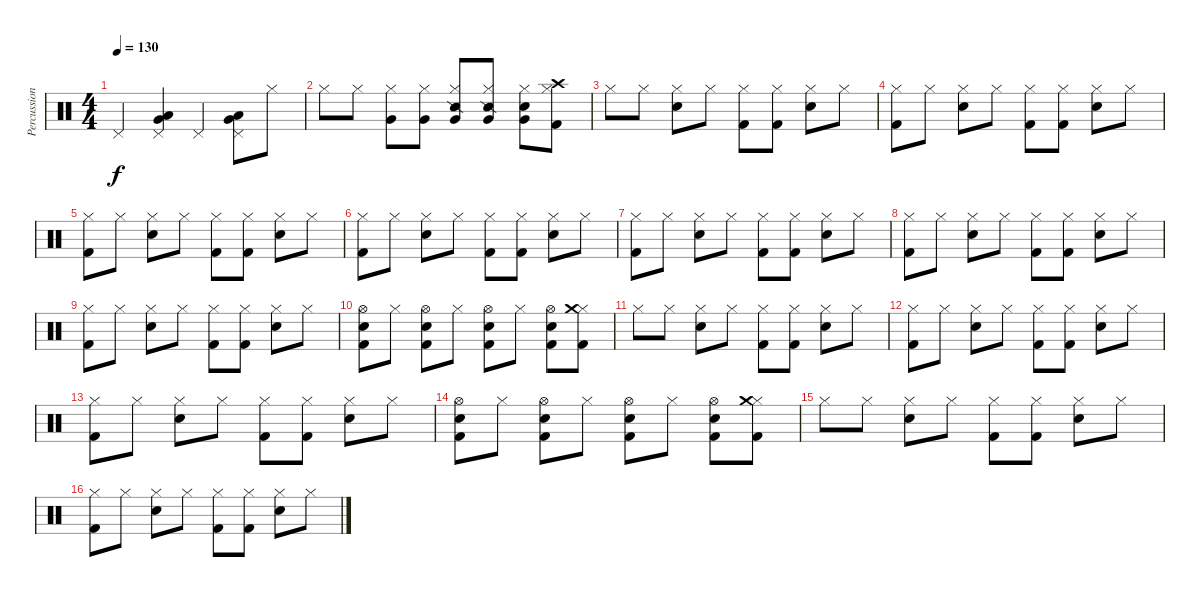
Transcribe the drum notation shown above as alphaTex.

\track ("Percussion" "Percussion") {instrument percussion}
\staff {score}
\articulation defaults
\ts (4 4)
\tempo 130
\clef neutral
\ks c "Pedal Hi-Hat (hit)".4{dy f}
("Pedal Hi-Hat (hit)" "Low Tom (hit)" "Very Low Tom (hit)").4 "Pedal Hi-Hat (hit)".4 ("Pedal Hi-Hat (hit)" "Low Tom (hit)" "Very Low Tom (hit)").8 "Hi-Hat (closed)".8 |
"Hi-Hat (closed)".8 "Hi-Hat (closed)".8 ("Hi-Hat (closed)" "Very Low Tom (hit)").8 ("Hi-Hat (closed)" "Very Low Tom (hit)").8 ("Hi-Hat (closed)" "Very Low Tom (hit)" "Snare (side stick) 2").8 ("Hi-Hat (closed)" "Very Low Tom (hit)" "Snare (side stick) 2").8 ("Hi-Hat (closed)" "Very Low Tom (hit)" "Metronome (bell)").8 ("Hi-Hat (closed)" "Crash high (hit)" "Kick (hit) 2").8 |
"Hi-Hat (closed)".8 "Hi-Hat (closed)".8 ("Hi-Hat (closed)" "Metronome (bell)").8 "Hi-Hat (closed)".8 ("Hi-Hat (closed)" "Kick (hit) 2").8 ("Hi-Hat (closed)" "Kick (hit) 2").8 ("Hi-Hat (closed)" "Metronome (bell)").8 "Hi-Hat (closed)".8 |
("Hi-Hat (closed)" "Kick (hit) 2").8 "Hi-Hat (closed)".8 ("Hi-Hat (closed)" "Metronome (bell)").8 "Hi-Hat (closed)".8 ("Hi-Hat (closed)" "Kick (hit) 2").8 ("Hi-Hat (closed)" "Kick (hit) 2").8 ("Hi-Hat (closed)" "Metronome (bell)").8 "Hi-Hat (closed)".8 |
("Hi-Hat (closed)" "Kick (hit) 2").8 "Hi-Hat (closed)".8 ("Hi-Hat (closed)" "Metronome (bell)").8 "Hi-Hat (closed)".8 ("Hi-Hat (closed)" "Kick (hit) 2").8 ("Hi-Hat (closed)" "Kick (hit) 2").8 ("Hi-Hat (closed)" "Metronome (bell)").8 "Hi-Hat (closed)".8 |
("Hi-Hat (closed)" "Kick (hit) 2").8 "Hi-Hat (closed)".8 ("Hi-Hat (closed)" "Metronome (bell)").8 "Hi-Hat (closed)".8 ("Hi-Hat (closed)" "Kick (hit) 2").8 ("Hi-Hat (closed)" "Kick (hit) 2").8 ("Hi-Hat (closed)" "Metronome (bell)").8 "Hi-Hat (closed)".8 |
("Hi-Hat (closed)" "Kick (hit) 2").8 "Hi-Hat (closed)".8 ("Hi-Hat (closed)" "Metronome (bell)").8 "Hi-Hat (closed)".8 ("Hi-Hat (closed)" "Kick (hit) 2").8 ("Hi-Hat (closed)" "Kick (hit) 2").8 ("Hi-Hat (closed)" "Metronome (bell)").8 "Hi-Hat (closed)".8 |
("Hi-Hat (closed)" "Kick (hit) 2").8 "Hi-Hat (closed)".8 ("Hi-Hat (closed)" "Metronome (bell)").8 "Hi-Hat (closed)".8 ("Hi-Hat (closed)" "Kick (hit) 2").8 ("Hi-Hat (closed)" "Kick (hit) 2").8 ("Hi-Hat (closed)" "Metronome (bell)").8 "Hi-Hat (closed)".8 |
("Hi-Hat (closed)" "Kick (hit) 2").8 "Hi-Hat (closed)".8 ("Hi-Hat (closed)" "Metronome (bell)").8 "Hi-Hat (closed)".8 ("Hi-Hat (closed)" "Kick (hit) 2").8 ("Hi-Hat (closed)" "Kick (hit) 2").8 ("Hi-Hat (closed)" "Metronome (bell)").8 "Hi-Hat (closed)".8 |
("Hi-Hat (open)" "Metronome (bell)" "Kick (hit) 2").8 "Hi-Hat (closed)".8 ("Hi-Hat (open)" "Metronome (bell)" "Kick (hit) 2").8 "Hi-Hat (closed)".8 ("Hi-Hat (open)" "Metronome (bell)" "Kick (hit) 2").8 "Hi-Hat (closed)".8 ("Hi-Hat (open)" "Metronome (bell)" "Kick (hit) 2").8 ("Hi-Hat (closed)" "Crash medium (hit)" "Kick (hit) 2").8 |
"Hi-Hat (closed)".8 "Hi-Hat (closed)".8 ("Hi-Hat (closed)" "Metronome (bell)").8 "Hi-Hat (closed)".8 ("Hi-Hat (closed)" "Kick (hit) 2").8 ("Hi-Hat (closed)" "Kick (hit) 2").8 ("Hi-Hat (closed)" "Metronome (bell)").8 "Hi-Hat (closed)".8 |
("Hi-Hat (closed)" "Kick (hit) 2").8 "Hi-Hat (closed)".8 ("Hi-Hat (closed)" "Metronome (bell)").8 "Hi-Hat (closed)".8 ("Hi-Hat (closed)" "Kick (hit) 2").8 ("Hi-Hat (closed)" "Kick (hit) 2").8 ("Hi-Hat (closed)" "Metronome (bell)").8 "Hi-Hat (closed)".8 |
("Hi-Hat (closed)" "Kick (hit) 2").8 "Hi-Hat (closed)".8 ("Hi-Hat (closed)" "Metronome (bell)").8 "Hi-Hat (closed)".8 ("Hi-Hat (closed)" "Kick (hit) 2").8 ("Hi-Hat (closed)" "Kick (hit) 2").8 ("Hi-Hat (closed)" "Metronome (bell)").8 "Hi-Hat (closed)".8 |
("Hi-Hat (open)" "Metronome (bell)" "Kick (hit) 2").8 "Hi-Hat (closed)".8 ("Hi-Hat (open)" "Metronome (bell)" "Kick (hit) 2").8 "Hi-Hat (closed)".8 ("Hi-Hat (open)" "Metronome (bell)" "Kick (hit) 2").8 "Hi-Hat (closed)".8 ("Hi-Hat (open)" "Metronome (bell)" "Kick (hit) 2").8 ("Hi-Hat (closed)" "Crash medium (hit)" "Kick (hit) 2").8 |
"Hi-Hat (closed)".8 "Hi-Hat (closed)".8 ("Hi-Hat (closed)" "Metronome (bell)").8 "Hi-Hat (closed)".8 ("Hi-Hat (closed)" "Kick (hit) 2").8 ("Hi-Hat (closed)" "Kick (hit) 2").8 ("Hi-Hat (closed)" "Metronome (bell)").8 "Hi-Hat (closed)".8 |
("Hi-Hat (closed)" "Kick (hit) 2").8 "Hi-Hat (closed)".8 ("Hi-Hat (closed)" "Metronome (bell)").8 "Hi-Hat (closed)".8 ("Hi-Hat (closed)" "Kick (hit) 2").8 ("Hi-Hat (closed)" "Kick (hit) 2").8 ("Hi-Hat (closed)" "Metronome (bell)").8 "Hi-Hat (closed)".8
